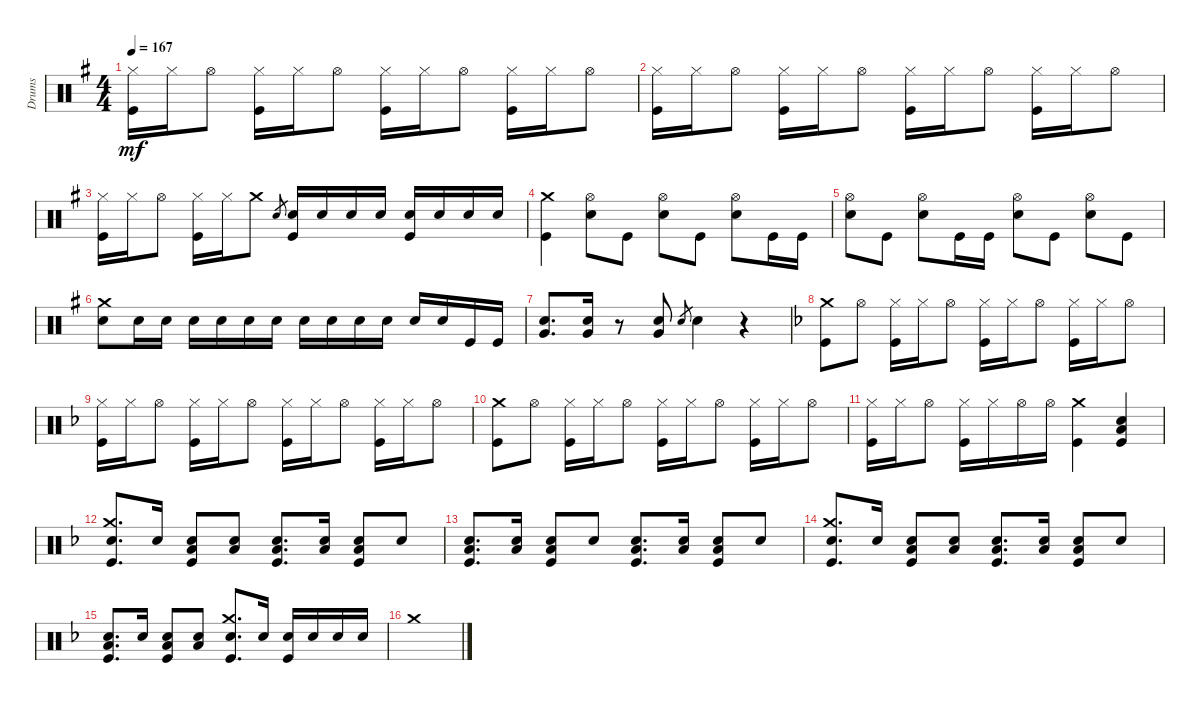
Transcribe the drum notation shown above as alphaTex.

\track ("Drums" "Drums") {instrument percussion}
\staff {score}
\articulation defaults
\ts (4 4)
\tempo 167
\clef neutral
\ks eminor
("Kick (hit)" "Hi-Hat (closed)").16{dy mf} "Hi-Hat (closed)".16 "Hi-Hat (open)".8 ("Hi-Hat (closed)" "Kick (hit)").16 "Hi-Hat (closed)".16 "Hi-Hat (open)".8 ("Kick (hit)" "Hi-Hat (closed)").16 "Hi-Hat (closed)".16 "Hi-Hat (open)".8 ("Hi-Hat (closed)" "Kick (hit)").16 "Hi-Hat (closed)".16 "Hi-Hat (open)".8 |
("Kick (hit)" "Hi-Hat (closed)").16 "Hi-Hat (closed)".16 "Hi-Hat (open)".8 ("Hi-Hat (closed)" "Kick (hit)").16 "Hi-Hat (closed)".16 "Hi-Hat (open)".8 ("Kick (hit)" "Hi-Hat (closed)").16 "Hi-Hat (closed)".16 "Hi-Hat (open)".8 ("Hi-Hat (closed)" "Kick (hit)").16 "Hi-Hat (closed)".16 "Hi-Hat (open)".8 |
("Hi-Hat (closed)" "Kick (hit)").16 "Hi-Hat (closed)".16 "Hi-Hat (open)".8 ("Kick (hit)" "Hi-Hat (closed)").16 "Hi-Hat (closed)".16 "Crash medium (hit)".8 "Snare (hit)".8{gr} ("Snare (hit) 2" "Kick (hit)").16 "Snare (hit) 2".16 "Snare (hit) 2".16 "Snare (hit) 2".16 ("Snare (hit) 2" "Kick (hit)").16 "Snare (hit) 2".16 "Snare (hit) 2".16 "Snare (hit) 2".16 |
("Kick (hit)" "Crash medium (hit)").4 ("Hi-Hat (open)" "Snare (hit) 2").8 "Kick (hit)".8 ("Hi-Hat (open)" "Snare (hit) 2").8 "Kick (hit)".8 ("Snare (hit) 2" "Hi-Hat (open)").8 "Kick (hit)".16 "Kick (hit)".16 |
("Hi-Hat (open)" "Snare (hit) 2").8 "Kick (hit)".8 ("Snare (hit) 2" "Hi-Hat (open)").8 "Kick (hit)".16 "Kick (hit)".16 ("Snare (hit) 2" "Hi-Hat (open)").8 "Kick (hit)".8 ("Snare (hit) 2" "Hi-Hat (open)").8 "Kick (hit)".8 |
("Crash medium (hit)" "Snare (hit) 2").8 "Snare (hit) 2".16 "Snare (hit) 2".16 "Snare (hit) 2".16 "Snare (hit) 2".16 "Snare (hit) 2".16 "Snare (hit) 2".16 "Snare (hit) 2".16 "Snare (hit) 2".16 "Snare (hit) 2".16 "Snare (hit) 2".16 "Snare (hit) 2".16 "Snare (hit) 2".16 "Kick (hit)".16 "Kick (hit)".16 |
("Very Low Tom (hit)" "Snare (hit) 2").8{d} ("Snare (hit) 2" "Very Low Tom (hit)").16 r.8 ("Very Low Tom (hit)" "Snare (hit) 2").8 "Snare (hit)".8{gr} "Snare (hit) 2".4 r.4 |
\ks dminor
("Crash medium (hit)" "Kick (hit)").8 "Hi-Hat (open)".8 ("Kick (hit)" "Hi-Hat (closed)").16 "Hi-Hat (closed)".16 "Hi-Hat (open)".8 ("Hi-Hat (closed)" "Kick (hit)").16 "Hi-Hat (closed)".16 "Hi-Hat (open)".8 ("Kick (hit)" "Hi-Hat (closed)").16 "Hi-Hat (closed)".16 "Hi-Hat (open)".8 |
("Kick (hit)" "Hi-Hat (closed)").16 "Hi-Hat (closed)".16 "Hi-Hat (open)".8 ("Hi-Hat (closed)" "Kick (hit)").16 "Hi-Hat (closed)".16 "Hi-Hat (open)".8 ("Kick (hit)" "Hi-Hat (closed)").16 "Hi-Hat (closed)".16 "Hi-Hat (open)".8 ("Hi-Hat (closed)" "Kick (hit)").16 "Hi-Hat (closed)".16 "Hi-Hat (open)".8 |
("Crash medium (hit)" "Kick (hit)").8 "Hi-Hat (open)".8 ("Kick (hit)" "Hi-Hat (closed)").16 "Hi-Hat (closed)".16 "Hi-Hat (open)".8 ("Hi-Hat (closed)" "Kick (hit)").16 "Hi-Hat (closed)".16 "Hi-Hat (open)".8 ("Kick (hit)" "Hi-Hat (closed)").16 "Hi-Hat (closed)".16 "Hi-Hat (open)".8 |
("Hi-Hat (closed)" "Kick (hit)").16 "Hi-Hat (closed)".16 "Hi-Hat (open)".8 ("Kick (hit)" "Hi-Hat (closed)").16 "Hi-Hat (closed)".16 "Hi-Hat (open)".16 "Hi-Hat (open)".16 ("Crash medium (hit)" "Kick (hit)").4 ("Kick (hit)" "Low Tom (hit)" "Snare (hit) 2").4 |
("Kick (hit)" "Snare (hit) 2" "Crash medium (hit)").8{d} "Snare (hit) 2".16 ("Snare (hit) 2" "Low Tom (hit)" "Kick (hit)").8 ("Low Tom (hit)" "Snare (hit) 2").8 ("Kick (hit)" "Low Tom (hit)" "Snare (hit) 2").8{d} ("Snare (hit) 2" "Low Tom (hit)").16 ("Low Tom (hit)" "Snare (hit) 2" "Kick (hit)").8 "Snare (hit) 2".8 |
("Kick (hit)" "Low Tom (hit)" "Snare (hit) 2").8{d} ("Snare (hit) 2" "Low Tom (hit)").16 ("Low Tom (hit)" "Snare (hit) 2" "Kick (hit)").8 "Snare (hit) 2".8 ("Kick (hit)" "Low Tom (hit)" "Snare (hit) 2").8{d} ("Snare (hit) 2" "Low Tom (hit)").16 ("Low Tom (hit)" "Snare (hit) 2" "Kick (hit)").8 "Snare (hit) 2".8 |
("Kick (hit)" "Snare (hit) 2" "Crash medium (hit)").8{d} "Snare (hit) 2".16 ("Snare (hit) 2" "Low Tom (hit)" "Kick (hit)").8 ("Low Tom (hit)" "Snare (hit) 2").8 ("Kick (hit)" "Low Tom (hit)" "Snare (hit) 2").8{d} ("Snare (hit) 2" "Low Tom (hit)").16 ("Low Tom (hit)" "Snare (hit) 2" "Kick (hit)").8 "Snare (hit) 2".8 |
("Snare (hit) 2" "Low Tom (hit)" "Kick (hit)").8{d} "Snare (hit) 2".16 ("Snare (hit) 2" "Low Tom (hit)" "Kick (hit)").8 ("Low Tom (hit)" "Snare (hit) 2").8 ("Snare (hit) 2" "Crash medium (hit)" "Kick (hit)").8{d} "Snare (hit) 2".16 ("Snare (hit) 2" "Kick (hit)").16 "Snare (hit) 2".16 "Snare (hit) 2".16 "Snare (hit) 2".16 |
"Crash medium (hit)".1
